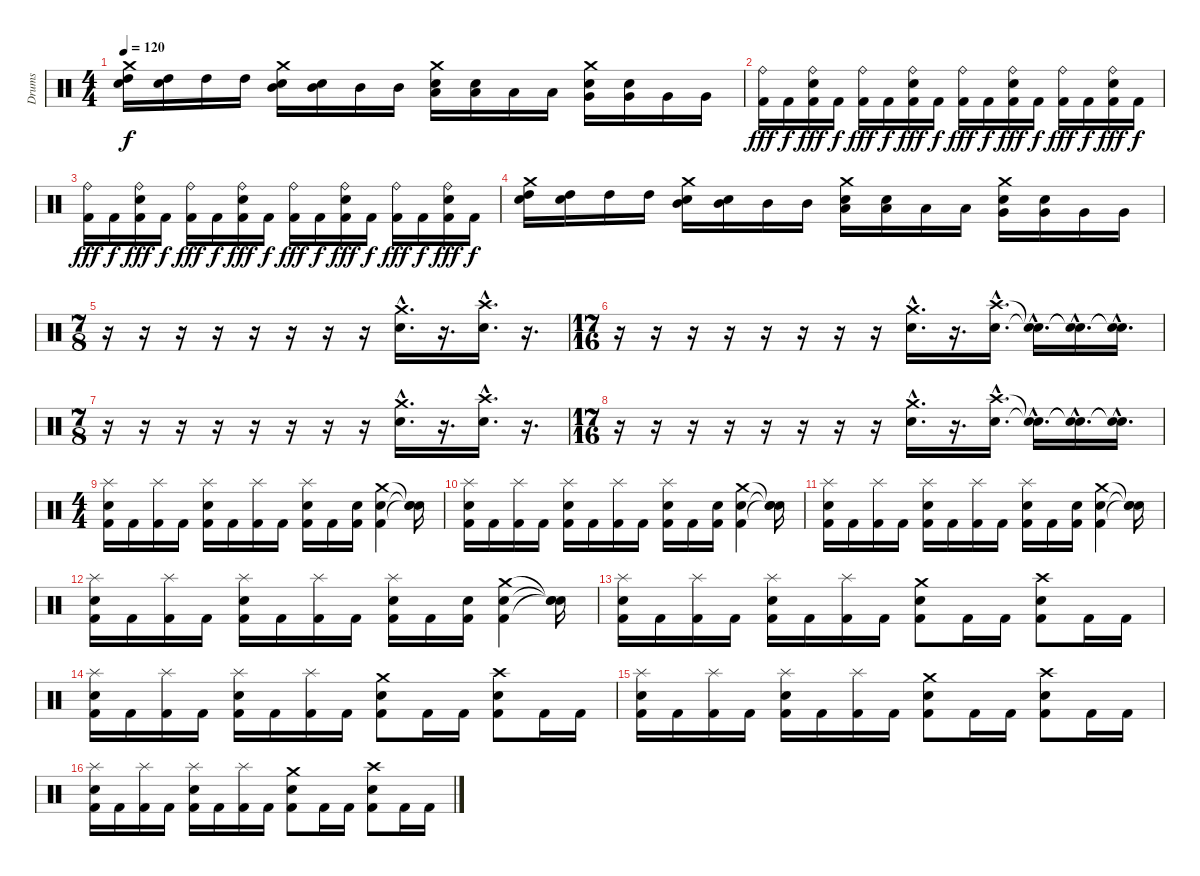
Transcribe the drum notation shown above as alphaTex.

\track ("Drums" "Drums") {instrument percussion}
\staff {score}
\articulation defaults
\ts (4 4)
\tempo 120
\clef neutral
\ks c
("Crash medium (hit)" "High Tom (hit)" "Snare (hit) 2").16{dy f} ("High Tom (hit)" "Snare (hit) 2").16 "High Tom (hit)".16 "High Tom (hit)".16 ("Crash medium (hit)" "Mid Tom (hit)" "Snare (hit) 2").16 ("Mid Tom (hit)" "Snare (hit) 2").16 "Mid Tom (hit)".16 "Mid Tom (hit)".16 ("Crash medium (hit)" "Low Tom (hit)" "Snare (hit) 2").16 ("Low Tom (hit)" "Snare (hit) 2").16 "Low Tom (hit)".16 "Low Tom (hit)".16 ("Crash medium (hit)" "Very Low Tom (hit)" "Snare (hit) 2").16 ("Very Low Tom (hit)" "Snare (hit) 2").16 "Very Low Tom (hit)".16 "Very Low Tom (hit)".16 |
("Ride (bell)" "Kick (hit) 2").16{dy fff} "Kick (hit) 2".16{dy f} ("Ride (bell)" "Snare (hit) 2" "Kick (hit) 2").16{dy fff} "Kick (hit) 2".16{dy f} ("Ride (bell)" "Kick (hit) 2").16{dy fff} "Kick (hit) 2".16{dy f} ("Ride (bell)" "Snare (hit) 2" "Kick (hit) 2").16{dy fff} "Kick (hit) 2".16{dy f} ("Ride (bell)" "Kick (hit) 2").16{dy fff} "Kick (hit) 2".16{dy f} ("Ride (bell)" "Snare (hit) 2" "Kick (hit) 2").16{dy fff} "Kick (hit) 2".16{dy f} ("Ride (bell)" "Kick (hit) 2").16{dy fff} "Kick (hit) 2".16{dy f} ("Ride (bell)" "Snare (hit) 2" "Kick (hit) 2").16{dy fff} "Kick (hit) 2".16{dy f} |
("Ride (bell)" "Kick (hit) 2").16{dy fff} "Kick (hit) 2".16{dy f} ("Ride (bell)" "Snare (hit) 2" "Kick (hit) 2").16{dy fff} "Kick (hit) 2".16{dy f} ("Ride (bell)" "Kick (hit) 2").16{dy fff} "Kick (hit) 2".16{dy f} ("Ride (bell)" "Snare (hit) 2" "Kick (hit) 2").16{dy fff} "Kick (hit) 2".16{dy f} ("Ride (bell)" "Kick (hit) 2").16{dy fff} "Kick (hit) 2".16{dy f} ("Ride (bell)" "Snare (hit) 2" "Kick (hit) 2").16{dy fff} "Kick (hit) 2".16{dy f} ("Ride (bell)" "Kick (hit) 2").16{dy fff} "Kick (hit) 2".16{dy f} ("Ride (bell)" "Snare (hit) 2" "Kick (hit) 2").16{dy fff} "Kick (hit) 2".16{dy f} |
("Crash medium (hit)" "High Tom (hit)" "Snare (hit) 2").16 ("High Tom (hit)" "Snare (hit) 2").16 "High Tom (hit)".16 "High Tom (hit)".16 ("Crash medium (hit)" "Mid Tom (hit)" "Snare (hit) 2").16 ("Mid Tom (hit)" "Snare (hit) 2").16 "Mid Tom (hit)".16 "Mid Tom (hit)".16 ("Crash medium (hit)" "Low Tom (hit)" "Snare (hit) 2").16 ("Low Tom (hit)" "Snare (hit) 2").16 "Low Tom (hit)".16 "Low Tom (hit)".16 ("Crash medium (hit)" "Very Low Tom (hit)" "Snare (hit) 2").16 ("Very Low Tom (hit)" "Snare (hit) 2").16 "Very Low Tom (hit)".16 "Very Low Tom (hit)".16 |
\ts (7 8)
r.16 r.16 r.16 r.16 r.16 r.16 r.16 r.16 ("Crash medium (hit)"{hac} "Snare (hit) 2"{hac}).16{d} r.16{d} ("Crash high (hit)"{hac} "Snare (hit) 2"{hac}).16{d} r.16{d} |
\ts (17 16)
r.16 r.16 r.16 r.16 r.16 r.16 r.16 r.16 ("Crash medium (hit)"{hac} "Snare (hit) 2"{hac}).16{d} r.16{d} ("Crash high (hit)"{hac} "Snare (hit) 2"{hac}).16{d} ("Snare (hit)"{hac t} "Snare (hit)"{hac t}).16{d} ("Snare (hit)"{hac t} "Snare (hit)"{hac t}).16{d} ("Snare (hit)"{hac t} "Snare (hit)"{hac t}).16{d} |
\ts (7 8)
r.16 r.16 r.16 r.16 r.16 r.16 r.16 r.16 ("Crash medium (hit)"{hac} "Snare (hit) 2"{hac}).16{d} r.16{d} ("Crash high (hit)"{hac} "Snare (hit) 2"{hac}).16{d} r.16{d} |
\ts (17 16)
r.16 r.16 r.16 r.16 r.16 r.16 r.16 r.16 ("Crash medium (hit)"{hac} "Snare (hit) 2"{hac}).16{d} r.16{d} ("Crash high (hit)"{hac} "Snare (hit) 2"{hac}).16{d} ("Snare (hit)"{hac t} "Snare (hit)"{hac t}).16{d} ("Snare (hit)"{hac t} "Snare (hit)"{hac t}).16{d} ("Snare (hit)"{hac t} "Snare (hit)"{hac t}).16{d} |
\ts (4 4)
("Splash (hit)" "Snare (hit) 2" "Kick (hit) 2").16 "Kick (hit) 2".16 ("Splash (hit)" "Kick (hit) 2").16 "Kick (hit) 2".16 ("Splash (hit)" "Snare (hit) 2" "Kick (hit) 2").16 "Kick (hit) 2".16 ("Splash (hit)" "Kick (hit) 2").16 "Kick (hit) 2".16 ("Splash (hit)" "Snare (hit) 2" "Kick (hit) 2").16 "Kick (hit) 2".16 ("Snare (hit) 2" "Kick (hit) 2").16 ("Crash medium (hit)" "Snare (hit) 2" "Kick (hit) 2").4 ("Snare (hit)"{t} "Snare (hit)"{t} "Snare (hit)"{t}).16 |
("Splash (hit)" "Snare (hit) 2" "Kick (hit) 2").16 "Kick (hit) 2".16 ("Splash (hit)" "Kick (hit) 2").16 "Kick (hit) 2".16 ("Splash (hit)" "Snare (hit) 2" "Kick (hit) 2").16 "Kick (hit) 2".16 ("Splash (hit)" "Kick (hit) 2").16 "Kick (hit) 2".16 ("Splash (hit)" "Snare (hit) 2" "Kick (hit) 2").16 "Kick (hit) 2".16 ("Snare (hit) 2" "Kick (hit) 2").16 ("Crash medium (hit)" "Snare (hit) 2" "Kick (hit) 2").4 ("Snare (hit)"{t} "Snare (hit)"{t} "Snare (hit)"{t}).16 |
("Splash (hit)" "Snare (hit) 2" "Kick (hit) 2").16 "Kick (hit) 2".16 ("Splash (hit)" "Kick (hit) 2").16 "Kick (hit) 2".16 ("Splash (hit)" "Snare (hit) 2" "Kick (hit) 2").16 "Kick (hit) 2".16 ("Splash (hit)" "Kick (hit) 2").16 "Kick (hit) 2".16 ("Splash (hit)" "Snare (hit) 2" "Kick (hit) 2").16 "Kick (hit) 2".16 ("Snare (hit) 2" "Kick (hit) 2").16 ("Crash medium (hit)" "Snare (hit) 2" "Kick (hit) 2").4 ("Snare (hit)"{t} "Snare (hit)"{t} "Snare (hit)"{t}).16 |
("Splash (hit)" "Snare (hit) 2" "Kick (hit) 2").16 "Kick (hit) 2".16 ("Splash (hit)" "Kick (hit) 2").16 "Kick (hit) 2".16 ("Splash (hit)" "Snare (hit) 2" "Kick (hit) 2").16 "Kick (hit) 2".16 ("Splash (hit)" "Kick (hit) 2").16 "Kick (hit) 2".16 ("Splash (hit)" "Snare (hit) 2" "Kick (hit) 2").16 "Kick (hit) 2".16 ("Snare (hit) 2" "Kick (hit) 2").16 ("Crash medium (hit)" "Snare (hit) 2" "Kick (hit) 2").4 ("Snare (hit)"{t} "Snare (hit)"{t} "Snare (hit)"{t}).16 |
("Splash (hit)" "Snare (hit) 2" "Kick (hit) 2").16 "Kick (hit) 2".16 ("Splash (hit)" "Kick (hit) 2").16 "Kick (hit) 2".16 ("Splash (hit)" "Snare (hit) 2" "Kick (hit) 2").16 "Kick (hit) 2".16 ("Splash (hit)" "Kick (hit) 2").16 "Kick (hit) 2".16 ("Crash medium (hit)" "Snare (hit) 2" "Kick (hit) 2").8 "Kick (hit) 2".16 "Kick (hit) 2".16 ("Crash high (hit)" "Snare (hit) 2" "Kick (hit) 2").8 "Kick (hit) 2".16 "Kick (hit) 2".16 |
("Splash (hit)" "Snare (hit) 2" "Kick (hit) 2").16 "Kick (hit) 2".16 ("Splash (hit)" "Kick (hit) 2").16 "Kick (hit) 2".16 ("Splash (hit)" "Snare (hit) 2" "Kick (hit) 2").16 "Kick (hit) 2".16 ("Splash (hit)" "Kick (hit) 2").16 "Kick (hit) 2".16 ("Crash medium (hit)" "Snare (hit) 2" "Kick (hit) 2").8 "Kick (hit) 2".16 "Kick (hit) 2".16 ("Crash high (hit)" "Snare (hit) 2" "Kick (hit) 2").8 "Kick (hit) 2".16 "Kick (hit) 2".16 |
("Splash (hit)" "Snare (hit) 2" "Kick (hit) 2").16 "Kick (hit) 2".16 ("Splash (hit)" "Kick (hit) 2").16 "Kick (hit) 2".16 ("Splash (hit)" "Snare (hit) 2" "Kick (hit) 2").16 "Kick (hit) 2".16 ("Splash (hit)" "Kick (hit) 2").16 "Kick (hit) 2".16 ("Crash medium (hit)" "Snare (hit) 2" "Kick (hit) 2").8 "Kick (hit) 2".16 "Kick (hit) 2".16 ("Crash high (hit)" "Snare (hit) 2" "Kick (hit) 2").8 "Kick (hit) 2".16 "Kick (hit) 2".16 |
("Splash (hit)" "Snare (hit) 2" "Kick (hit) 2").16 "Kick (hit) 2".16 ("Splash (hit)" "Kick (hit) 2").16 "Kick (hit) 2".16 ("Splash (hit)" "Snare (hit) 2" "Kick (hit) 2").16 "Kick (hit) 2".16 ("Splash (hit)" "Kick (hit) 2").16 "Kick (hit) 2".16 ("Crash medium (hit)" "Snare (hit) 2" "Kick (hit) 2").8 "Kick (hit) 2".16 "Kick (hit) 2".16 ("Crash high (hit)" "Snare (hit) 2" "Kick (hit) 2").8 "Kick (hit) 2".16 "Kick (hit) 2".16
